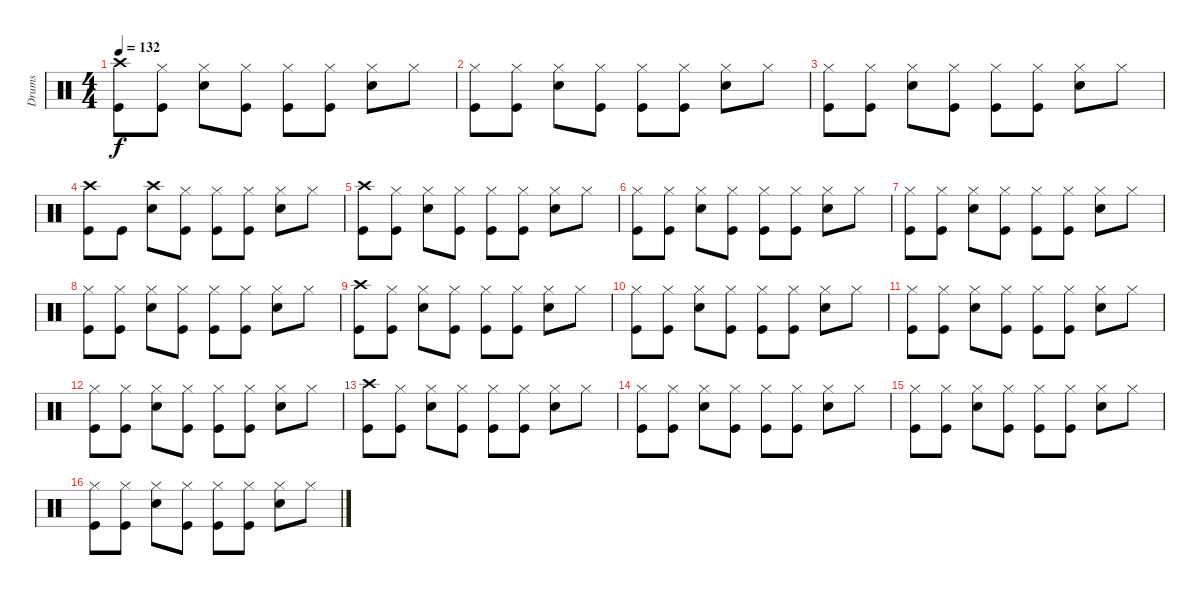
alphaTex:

\track ("Drums" "Drums") {instrument percussion}
\staff {score}
\articulation defaults
\ts (4 4)
\tempo 132
\clef neutral
\ks c
("Crash high (hit)" "Kick (hit)").8{dy f} ("Hi-Hat (closed)" "Kick (hit)").8 ("Hi-Hat (closed)" "Snare (hit) 2").8 ("Kick (hit)" "Hi-Hat (closed)").8 ("Hi-Hat (closed)" "Kick (hit)").8 ("Hi-Hat (closed)" "Kick (hit)").8 ("Hi-Hat (closed)" "Snare (hit) 2").8 "Hi-Hat (closed)".8 |
("Kick (hit)" "Hi-Hat (closed)").8 ("Kick (hit)" "Hi-Hat (closed)").8 ("Hi-Hat (closed)" "Snare (hit) 2").8 ("Kick (hit)" "Hi-Hat (closed)").8 ("Kick (hit)" "Hi-Hat (closed)").8 ("Kick (hit)" "Hi-Hat (closed)").8 ("Snare (hit) 2" "Hi-Hat (closed)").8 "Hi-Hat (closed)".8 |
("Kick (hit)" "Hi-Hat (closed)").8 ("Kick (hit)" "Hi-Hat (closed)").8 ("Snare (hit) 2" "Hi-Hat (closed)").8 ("Kick (hit)" "Hi-Hat (closed)").8 ("Kick (hit)" "Hi-Hat (closed)").8 ("Kick (hit)" "Hi-Hat (closed)").8 ("Snare (hit) 2" "Hi-Hat (closed)").8 "Hi-Hat (closed)".8 |
("Crash high (hit)" "Kick (hit)").8 "Kick (hit)".8 ("Crash high (hit)" "Snare (hit) 2").8 ("Kick (hit)" "Hi-Hat (closed)").8 ("Kick (hit)" "Hi-Hat (closed)").8 ("Kick (hit)" "Hi-Hat (closed)").8 ("Hi-Hat (closed)" "Snare (hit) 2").8 "Hi-Hat (closed)".8 |
("Crash high (hit)" "Kick (hit)").8 ("Hi-Hat (closed)" "Kick (hit)").8 ("Snare (hit) 2" "Hi-Hat (closed)").8 ("Kick (hit)" "Hi-Hat (closed)").8 ("Kick (hit)" "Hi-Hat (closed)").8 ("Kick (hit)" "Hi-Hat (closed)").8 ("Snare (hit) 2" "Hi-Hat (closed)").8 "Hi-Hat (closed)".8 |
("Hi-Hat (closed)" "Kick (hit)").8 ("Hi-Hat (closed)" "Kick (hit)").8 ("Hi-Hat (closed)" "Snare (hit) 2").8 ("Kick (hit)" "Hi-Hat (closed)").8 ("Kick (hit)" "Hi-Hat (closed)").8 ("Kick (hit)" "Hi-Hat (closed)").8 ("Hi-Hat (closed)" "Snare (hit) 2").8 "Hi-Hat (closed)".8 |
("Hi-Hat (closed)" "Kick (hit)").8 ("Hi-Hat (closed)" "Kick (hit)").8 ("Snare (hit) 2" "Hi-Hat (closed)").8 ("Kick (hit)" "Hi-Hat (closed)").8 ("Kick (hit)" "Hi-Hat (closed)").8 ("Kick (hit)" "Hi-Hat (closed)").8 ("Snare (hit) 2" "Hi-Hat (closed)").8 "Hi-Hat (closed)".8 |
("Hi-Hat (closed)" "Kick (hit)").8 ("Hi-Hat (closed)" "Kick (hit)").8 ("Snare (hit) 2" "Hi-Hat (closed)").8 ("Kick (hit)" "Hi-Hat (closed)").8 ("Kick (hit)" "Hi-Hat (closed)").8 ("Kick (hit)" "Hi-Hat (closed)").8 ("Hi-Hat (closed)" "Snare (hit) 2").8 "Hi-Hat (closed)".8 |
("Crash high (hit)" "Kick (hit)").8 ("Hi-Hat (closed)" "Kick (hit)").8 ("Snare (hit) 2" "Hi-Hat (closed)").8 ("Kick (hit)" "Hi-Hat (closed)").8 ("Kick (hit)" "Hi-Hat (closed)").8 ("Kick (hit)" "Hi-Hat (closed)").8 ("Snare (hit) 2" "Hi-Hat (closed)").8 "Hi-Hat (closed)".8 |
("Hi-Hat (closed)" "Kick (hit)").8 ("Hi-Hat (closed)" "Kick (hit)").8 ("Snare (hit) 2" "Hi-Hat (closed)").8 ("Kick (hit)" "Hi-Hat (closed)").8 ("Kick (hit)" "Hi-Hat (closed)").8 ("Kick (hit)" "Hi-Hat (closed)").8 ("Hi-Hat (closed)" "Snare (hit) 2").8 "Hi-Hat (closed)".8 |
("Hi-Hat (closed)" "Kick (hit)").8 ("Hi-Hat (closed)" "Kick (hit)").8 ("Snare (hit) 2" "Hi-Hat (closed)").8 ("Kick (hit)" "Hi-Hat (closed)").8 ("Kick (hit)" "Hi-Hat (closed)").8 ("Kick (hit)" "Hi-Hat (closed)").8 ("Snare (hit) 2" "Hi-Hat (closed)").8 "Hi-Hat (closed)".8 |
("Hi-Hat (closed)" "Kick (hit)").8 ("Hi-Hat (closed)" "Kick (hit)").8 ("Snare (hit) 2" "Hi-Hat (closed)").8 ("Kick (hit)" "Hi-Hat (closed)").8 ("Kick (hit)" "Hi-Hat (closed)").8 ("Kick (hit)" "Hi-Hat (closed)").8 ("Hi-Hat (closed)" "Snare (hit) 2").8 "Hi-Hat (closed)".8 |
("Crash high (hit)" "Kick (hit)").8 ("Hi-Hat (closed)" "Kick (hit)").8 ("Snare (hit) 2" "Hi-Hat (closed)").8 ("Kick (hit)" "Hi-Hat (closed)").8 ("Kick (hit)" "Hi-Hat (closed)").8 ("Kick (hit)" "Hi-Hat (closed)").8 ("Snare (hit) 2" "Hi-Hat (closed)").8 "Hi-Hat (closed)".8 |
("Hi-Hat (closed)" "Kick (hit)").8 ("Hi-Hat (closed)" "Kick (hit)").8 ("Snare (hit) 2" "Hi-Hat (closed)").8 ("Kick (hit)" "Hi-Hat (closed)").8 ("Kick (hit)" "Hi-Hat (closed)").8 ("Kick (hit)" "Hi-Hat (closed)").8 ("Hi-Hat (closed)" "Snare (hit) 2").8 "Hi-Hat (closed)".8 |
("Hi-Hat (closed)" "Kick (hit)").8 ("Hi-Hat (closed)" "Kick (hit)").8 ("Snare (hit) 2" "Hi-Hat (closed)").8 ("Kick (hit)" "Hi-Hat (closed)").8 ("Kick (hit)" "Hi-Hat (closed)").8 ("Kick (hit)" "Hi-Hat (closed)").8 ("Snare (hit) 2" "Hi-Hat (closed)").8 "Hi-Hat (closed)".8 |
("Hi-Hat (closed)" "Kick (hit)").8 ("Hi-Hat (closed)" "Kick (hit)").8 ("Snare (hit) 2" "Hi-Hat (closed)").8 ("Kick (hit)" "Hi-Hat (closed)").8 ("Kick (hit)" "Hi-Hat (closed)").8 ("Kick (hit)" "Hi-Hat (closed)").8 ("Hi-Hat (closed)" "Snare (hit) 2").8 "Hi-Hat (closed)".8
